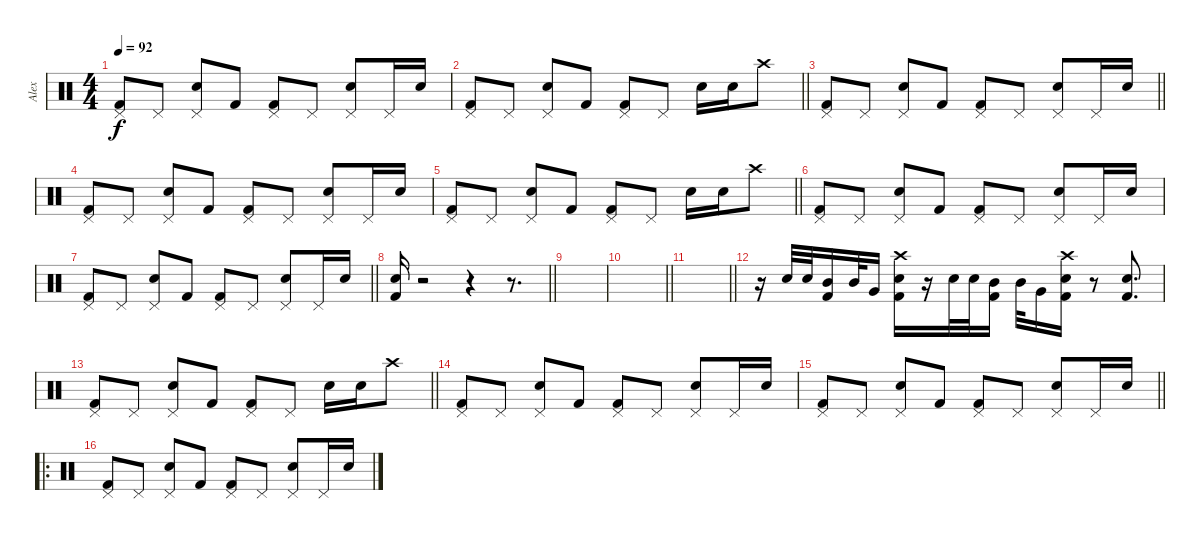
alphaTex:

\track ("Alex" "Alex") {instrument percussion}
\staff {score}
\articulation defaults
\ts (4 4)
\tempo 92
\clef neutral
\ks c
("Pedal Hi-Hat (hit)" "Kick (hit) 2").8{dy f} "Pedal Hi-Hat (hit)".8 ("Pedal Hi-Hat (hit)" "Snare (hit) 2").8 "Kick (hit) 2".8 ("Pedal Hi-Hat (hit)" "Kick (hit) 2").8 "Pedal Hi-Hat (hit)".8 ("Pedal Hi-Hat (hit)" "Snare (hit) 2").8 "Pedal Hi-Hat (hit)".16 "Snare (hit) 2".16 |
\barLineRight lightlight
("Pedal Hi-Hat (hit)" "Kick (hit) 2").8 "Pedal Hi-Hat (hit)".8 ("Pedal Hi-Hat (hit)" "Snare (hit) 2").8 "Kick (hit) 2".8 ("Pedal Hi-Hat (hit)" "Kick (hit) 2").8 "Pedal Hi-Hat (hit)".8 "Snare (hit) 2".16 "Snare (hit) 2".16 "Crash high (hit)".8 |
\barLineRight lightlight
("Pedal Hi-Hat (hit)" "Kick (hit) 2").8 "Pedal Hi-Hat (hit)".8 ("Pedal Hi-Hat (hit)" "Snare (hit) 2").8 "Kick (hit) 2".8 ("Pedal Hi-Hat (hit)" "Kick (hit) 2").8 "Pedal Hi-Hat (hit)".8 ("Pedal Hi-Hat (hit)" "Snare (hit) 2").8 "Pedal Hi-Hat (hit)".16 "Snare (hit) 2".16 |
("Pedal Hi-Hat (hit)" "Kick (hit) 2").8 "Pedal Hi-Hat (hit)".8 ("Pedal Hi-Hat (hit)" "Snare (hit) 2").8 "Kick (hit) 2".8 ("Pedal Hi-Hat (hit)" "Kick (hit) 2").8 "Pedal Hi-Hat (hit)".8 ("Pedal Hi-Hat (hit)" "Snare (hit) 2").8 "Pedal Hi-Hat (hit)".16 "Snare (hit) 2".16 |
\barLineRight lightlight
("Pedal Hi-Hat (hit)" "Kick (hit) 2").8 "Pedal Hi-Hat (hit)".8 ("Pedal Hi-Hat (hit)" "Snare (hit) 2").8 "Kick (hit) 2".8 ("Pedal Hi-Hat (hit)" "Kick (hit) 2").8 "Pedal Hi-Hat (hit)".8 "Snare (hit) 2".16 "Snare (hit) 2".16 "Crash high (hit)".8 |
("Pedal Hi-Hat (hit)" "Kick (hit) 2").8 "Pedal Hi-Hat (hit)".8 ("Pedal Hi-Hat (hit)" "Snare (hit) 2").8 "Kick (hit) 2".8 ("Pedal Hi-Hat (hit)" "Kick (hit) 2").8 "Pedal Hi-Hat (hit)".8 ("Pedal Hi-Hat (hit)" "Snare (hit) 2").8 "Pedal Hi-Hat (hit)".16 "Snare (hit) 2".16 |
\barLineRight lightlight
("Pedal Hi-Hat (hit)" "Kick (hit) 2").8 "Pedal Hi-Hat (hit)".8 ("Pedal Hi-Hat (hit)" "Snare (hit) 2").8 "Kick (hit) 2".8 ("Pedal Hi-Hat (hit)" "Kick (hit) 2").8 "Pedal Hi-Hat (hit)".8 ("Pedal Hi-Hat (hit)" "Snare (hit) 2").8 "Pedal Hi-Hat (hit)".16 "Snare (hit) 2".16 |
\barLineRight lightlight
("Snare (hit) 2" "Kick (hit) 2").16 r.2 r.4 r.8{d} |
|
\barLineRight lightlight
|
\barLineRight lightlight
|
r.16 "Snare (hit) 2".32 "Snare (hit) 2".32 ("Mid Tom (hit)" "Kick (hit) 2").16 "Mid Tom (hit)".32 "Very Low Tom (hit)".16 ("Crash high (hit)" "Snare (hit) 2" "Kick (hit) 2").16 r.16 "Snare (hit) 2".32 "Snare (hit) 2".32 ("Mid Tom (hit)" "Kick (hit) 2").16 "Mid Tom (hit)".32 "Very Low Tom (hit)".16 ("Crash high (hit)" "Snare (hit) 2" "Kick (hit) 2").16 r.8 ("Snare (hit) 2" "Kick (hit) 2").8{d} |
\barLineRight lightlight
("Pedal Hi-Hat (hit)" "Kick (hit) 2").8 "Pedal Hi-Hat (hit)".8 ("Pedal Hi-Hat (hit)" "Snare (hit) 2").8 "Kick (hit) 2".8 ("Pedal Hi-Hat (hit)" "Kick (hit) 2").8 "Pedal Hi-Hat (hit)".8 "Snare (hit) 2".16 "Snare (hit) 2".16 "Crash high (hit)".8 |
("Pedal Hi-Hat (hit)" "Kick (hit) 2").8 "Pedal Hi-Hat (hit)".8 ("Pedal Hi-Hat (hit)" "Snare (hit) 2").8 "Kick (hit) 2".8 ("Pedal Hi-Hat (hit)" "Kick (hit) 2").8 "Pedal Hi-Hat (hit)".8 ("Pedal Hi-Hat (hit)" "Snare (hit) 2").8 "Pedal Hi-Hat (hit)".16 "Snare (hit) 2".16 |
\barLineRight lightlight
("Pedal Hi-Hat (hit)" "Kick (hit) 2").8 "Pedal Hi-Hat (hit)".8 ("Pedal Hi-Hat (hit)" "Snare (hit) 2").8 "Kick (hit) 2".8 ("Pedal Hi-Hat (hit)" "Kick (hit) 2").8 "Pedal Hi-Hat (hit)".8 ("Pedal Hi-Hat (hit)" "Snare (hit) 2").8 "Pedal Hi-Hat (hit)".16 "Snare (hit) 2".16 |
\ro
("Pedal Hi-Hat (hit)" "Kick (hit) 2").8 "Pedal Hi-Hat (hit)".8 ("Pedal Hi-Hat (hit)" "Snare (hit) 2").8 "Kick (hit) 2".8 ("Pedal Hi-Hat (hit)" "Kick (hit) 2").8 "Pedal Hi-Hat (hit)".8 ("Pedal Hi-Hat (hit)" "Snare (hit) 2").8 "Pedal Hi-Hat (hit)".16 "Snare (hit) 2".16
